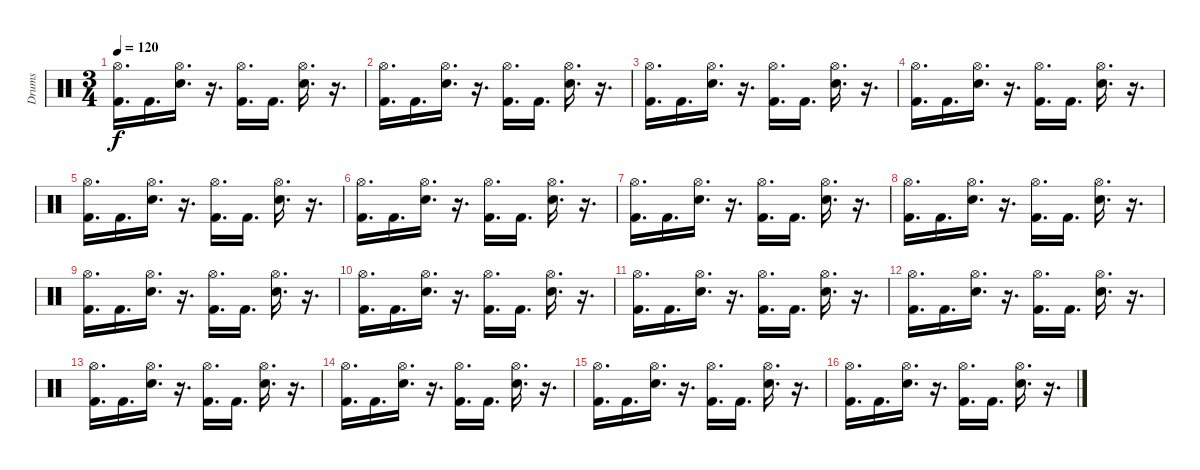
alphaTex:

\track ("Drums" "Drums") {instrument percussion}
\staff {score}
\articulation defaults
\ts (3 4)
\tempo 120
\clef neutral
\ks c
("Hi-Hat (open)" "Kick (hit) 2").16{d dy f} "Kick (hit) 2".16{d} ("Hi-Hat (open)" "Electric Snare (hit)").16{d} r.16{d} ("Hi-Hat (open)" "Kick (hit) 2").16{d} "Kick (hit) 2".16{d} ("Hi-Hat (open)" "Electric Snare (hit)").16{d} r.16{d} |
("Hi-Hat (open)" "Kick (hit) 2").16{d} "Kick (hit) 2".16{d} ("Hi-Hat (open)" "Electric Snare (hit)").16{d} r.16{d} ("Hi-Hat (open)" "Kick (hit) 2").16{d} "Kick (hit) 2".16{d} ("Hi-Hat (open)" "Electric Snare (hit)").16{d} r.16{d} |
("Hi-Hat (open)" "Kick (hit) 2").16{d} "Kick (hit) 2".16{d} ("Hi-Hat (open)" "Electric Snare (hit)").16{d} r.16{d} ("Hi-Hat (open)" "Kick (hit) 2").16{d} "Kick (hit) 2".16{d} ("Hi-Hat (open)" "Electric Snare (hit)").16{d} r.16{d} |
("Hi-Hat (open)" "Kick (hit) 2").16{d} "Kick (hit) 2".16{d} ("Hi-Hat (open)" "Electric Snare (hit)").16{d} r.16{d} ("Hi-Hat (open)" "Kick (hit) 2").16{d} "Kick (hit) 2".16{d} ("Hi-Hat (open)" "Electric Snare (hit)").16{d} r.16{d} |
("Hi-Hat (open)" "Kick (hit) 2").16{d} "Kick (hit) 2".16{d} ("Hi-Hat (open)" "Electric Snare (hit)").16{d} r.16{d} ("Hi-Hat (open)" "Kick (hit) 2").16{d} "Kick (hit) 2".16{d} ("Hi-Hat (open)" "Electric Snare (hit)").16{d} r.16{d} |
("Hi-Hat (open)" "Kick (hit) 2").16{d} "Kick (hit) 2".16{d} ("Hi-Hat (open)" "Electric Snare (hit)").16{d} r.16{d} ("Hi-Hat (open)" "Kick (hit) 2").16{d} "Kick (hit) 2".16{d} ("Hi-Hat (open)" "Electric Snare (hit)").16{d} r.16{d} |
("Hi-Hat (open)" "Kick (hit) 2").16{d} "Kick (hit) 2".16{d} ("Hi-Hat (open)" "Electric Snare (hit)").16{d} r.16{d} ("Hi-Hat (open)" "Kick (hit) 2").16{d} "Kick (hit) 2".16{d} ("Hi-Hat (open)" "Electric Snare (hit)").16{d} r.16{d} |
("Hi-Hat (open)" "Kick (hit) 2").16{d} "Kick (hit) 2".16{d} ("Hi-Hat (open)" "Electric Snare (hit)").16{d} r.16{d} ("Hi-Hat (open)" "Kick (hit) 2").16{d} "Kick (hit) 2".16{d} ("Hi-Hat (open)" "Electric Snare (hit)").16{d} r.16{d} |
("Hi-Hat (open)" "Kick (hit) 2").16{d} "Kick (hit) 2".16{d} ("Hi-Hat (open)" "Electric Snare (hit)").16{d} r.16{d} ("Hi-Hat (open)" "Kick (hit) 2").16{d} "Kick (hit) 2".16{d} ("Hi-Hat (open)" "Electric Snare (hit)").16{d} r.16{d} |
("Hi-Hat (open)" "Kick (hit) 2").16{d} "Kick (hit) 2".16{d} ("Hi-Hat (open)" "Electric Snare (hit)").16{d} r.16{d} ("Hi-Hat (open)" "Kick (hit) 2").16{d} "Kick (hit) 2".16{d} ("Hi-Hat (open)" "Electric Snare (hit)").16{d} r.16{d} |
("Hi-Hat (open)" "Kick (hit) 2").16{d} "Kick (hit) 2".16{d} ("Hi-Hat (open)" "Electric Snare (hit)").16{d} r.16{d} ("Hi-Hat (open)" "Kick (hit) 2").16{d} "Kick (hit) 2".16{d} ("Hi-Hat (open)" "Electric Snare (hit)").16{d} r.16{d} |
("Hi-Hat (open)" "Kick (hit) 2").16{d} "Kick (hit) 2".16{d} ("Hi-Hat (open)" "Electric Snare (hit)").16{d} r.16{d} ("Hi-Hat (open)" "Kick (hit) 2").16{d} "Kick (hit) 2".16{d} ("Hi-Hat (open)" "Electric Snare (hit)").16{d} r.16{d} |
("Hi-Hat (open)" "Kick (hit) 2").16{d} "Kick (hit) 2".16{d} ("Hi-Hat (open)" "Electric Snare (hit)").16{d} r.16{d} ("Hi-Hat (open)" "Kick (hit) 2").16{d} "Kick (hit) 2".16{d} ("Hi-Hat (open)" "Electric Snare (hit)").16{d} r.16{d} |
("Hi-Hat (open)" "Kick (hit) 2").16{d} "Kick (hit) 2".16{d} ("Hi-Hat (open)" "Electric Snare (hit)").16{d} r.16{d} ("Hi-Hat (open)" "Kick (hit) 2").16{d} "Kick (hit) 2".16{d} ("Hi-Hat (open)" "Electric Snare (hit)").16{d} r.16{d} |
("Hi-Hat (open)" "Kick (hit) 2").16{d} "Kick (hit) 2".16{d} ("Hi-Hat (open)" "Electric Snare (hit)").16{d} r.16{d} ("Hi-Hat (open)" "Kick (hit) 2").16{d} "Kick (hit) 2".16{d} ("Hi-Hat (open)" "Electric Snare (hit)").16{d} r.16{d} |
("Hi-Hat (open)" "Kick (hit) 2").16{d} "Kick (hit) 2".16{d} ("Hi-Hat (open)" "Electric Snare (hit)").16{d} r.16{d} ("Hi-Hat (open)" "Kick (hit) 2").16{d} "Kick (hit) 2".16{d} ("Hi-Hat (open)" "Electric Snare (hit)").16{d} r.16{d}
